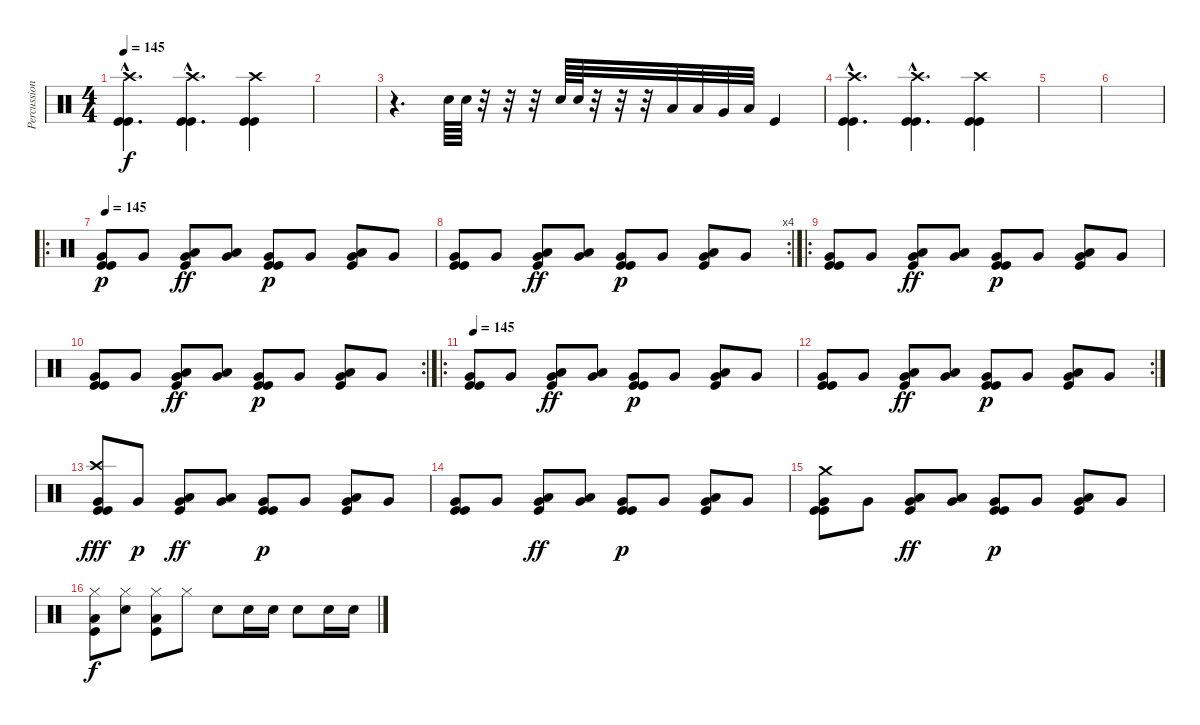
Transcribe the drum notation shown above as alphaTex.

\track ("Percussions" "Percussion") {instrument percussion}
\staff {score}
\articulation defaults
\ts (4 4)
\tempo 145
\tempo 125
\tempo 145
\clef neutral
\ks c
("Kick (hit)"{hac} "Kick (hit)"{hac} "Crash high (hit)"{hac}).4{d dy f} ("Kick (hit)"{hac} "Crash high (hit)"{hac} "Kick (hit)"{hac}).4{d} ("Kick (hit)" "Crash high (hit)" "Kick (hit)").4 |
|
r.4{d} "Snare (hit) 2".64 "Snare (hit) 2".64 r.32 r.32 r.32 "Snare (hit) 2".64 "Snare (hit) 2".64 r.32 r.32 r.32 "Low Tom (hit)".32 "Low Tom (hit)".32 "Very Low Tom (hit)".32 "Low Floor Tom (hit)".32 "Kick (hit)".4 |
("Kick (hit)"{hac} "Kick (hit)"{hac} "Crash high (hit)"{hac}).4{d} ("Kick (hit)"{hac} "Crash high (hit)"{hac} "Kick (hit)"{hac}).4{d} ("Kick (hit)" "Crash high (hit)" "Kick (hit)").4 |
|
|
\ro
\tempo 145
("Very Low Tom (hit)" "Kick (hit)" "Kick (hit)").8{dy p} "Very Low Tom (hit)".8 ("Very Low Tom (hit)" "Kick (hit)" "Low Tom (hit)").8{dy ff} ("Very Low Tom (hit)" "Low Tom (hit)").8 ("Very Low Tom (hit)" "Kick (hit)" "Kick (hit)").8{dy p} "Very Low Tom (hit)".8 ("Very Low Tom (hit)" "Kick (hit)" "Low Tom (hit)").8 "Very Low Tom (hit)".8 |
\rc 4
("Very Low Tom (hit)" "Kick (hit)" "Kick (hit)").8 "Very Low Tom (hit)".8 ("Very Low Tom (hit)" "Kick (hit)" "Low Tom (hit)").8{dy ff} ("Very Low Tom (hit)" "Low Tom (hit)").8 ("Very Low Tom (hit)" "Kick (hit)" "Kick (hit)").8{dy p} "Very Low Tom (hit)".8 ("Very Low Tom (hit)" "Kick (hit)" "Low Tom (hit)").8 "Very Low Tom (hit)".8 |
\ro
("Very Low Tom (hit)" "Kick (hit)" "Kick (hit)").8 "Very Low Tom (hit)".8 ("Very Low Tom (hit)" "Kick (hit)" "Low Tom (hit)").8{dy ff} ("Very Low Tom (hit)" "Low Tom (hit)").8 ("Very Low Tom (hit)" "Kick (hit)" "Kick (hit)").8{dy p} "Very Low Tom (hit)".8 ("Very Low Tom (hit)" "Kick (hit)" "Low Tom (hit)").8 "Very Low Tom (hit)".8 |
\rc 2
("Very Low Tom (hit)" "Kick (hit)" "Kick (hit)").8 "Very Low Tom (hit)".8 ("Very Low Tom (hit)" "Kick (hit)" "Low Tom (hit)").8{dy ff} ("Very Low Tom (hit)" "Low Tom (hit)").8 ("Very Low Tom (hit)" "Kick (hit)" "Kick (hit)").8{dy p} "Very Low Tom (hit)".8 ("Very Low Tom (hit)" "Kick (hit)" "Low Tom (hit)").8 "Very Low Tom (hit)".8 |
\ro
\tempo 145
("Very Low Tom (hit)" "Kick (hit)" "Kick (hit)").8 "Very Low Tom (hit)".8 ("Very Low Tom (hit)" "Kick (hit)" "Low Tom (hit)").8{dy ff} ("Very Low Tom (hit)" "Low Tom (hit)").8 ("Very Low Tom (hit)" "Kick (hit)" "Kick (hit)").8{dy p} "Very Low Tom (hit)".8 ("Very Low Tom (hit)" "Kick (hit)" "Low Tom (hit)").8 "Very Low Tom (hit)".8 |
\rc 2
("Very Low Tom (hit)" "Kick (hit)" "Kick (hit)").8 "Very Low Tom (hit)".8 ("Very Low Tom (hit)" "Kick (hit)" "Low Tom (hit)").8{dy ff} ("Very Low Tom (hit)" "Low Tom (hit)").8 ("Very Low Tom (hit)" "Kick (hit)" "Kick (hit)").8{dy p} "Very Low Tom (hit)".8 ("Very Low Tom (hit)" "Kick (hit)" "Low Tom (hit)").8 "Very Low Tom (hit)".8 |
("Very Low Tom (hit)" "Kick (hit)" "Kick (hit)" "Crash high (hit)").8{dy fff} "Very Low Tom (hit)".8{dy p} ("Very Low Tom (hit)" "Kick (hit)" "Low Tom (hit)").8{dy ff} ("Very Low Tom (hit)" "Low Tom (hit)").8 ("Very Low Tom (hit)" "Kick (hit)" "Kick (hit)").8{dy p} "Very Low Tom (hit)".8 ("Very Low Tom (hit)" "Kick (hit)" "Low Tom (hit)").8 "Very Low Tom (hit)".8 |
("Very Low Tom (hit)" "Kick (hit)" "Kick (hit)").8 "Very Low Tom (hit)".8 ("Very Low Tom (hit)" "Kick (hit)" "Low Tom (hit)").8{dy ff} ("Very Low Tom (hit)" "Low Tom (hit)").8 ("Very Low Tom (hit)" "Kick (hit)" "Kick (hit)").8{dy p} "Very Low Tom (hit)".8 ("Very Low Tom (hit)" "Kick (hit)" "Low Tom (hit)").8 "Very Low Tom (hit)".8 |
("Very Low Tom (hit)" "Kick (hit)" "Kick (hit)" "Crash medium (hit)").8 "Very Low Tom (hit)".8 ("Very Low Tom (hit)" "Kick (hit)" "Low Tom (hit)").8{dy ff} ("Very Low Tom (hit)" "Low Tom (hit)").8 ("Very Low Tom (hit)" "Kick (hit)" "Kick (hit)").8{dy p} "Very Low Tom (hit)".8 ("Very Low Tom (hit)" "Kick (hit)" "Low Tom (hit)").8 "Very Low Tom (hit)".8 |
("Kick (hit)" "Low Floor Tom (hit)" "Hi-Hat (closed)").8{dy f} ("Snare (hit) 2" "Hi-Hat (closed)").8 ("Kick (hit)" "Low Floor Tom (hit)" "Hi-Hat (closed)").8 "Hi-Hat (closed)".8 "Snare (hit) 2".8 "Snare (hit) 2".16 "Snare (hit) 2".16 "Snare (hit) 2".8 "Snare (hit) 2".16 "Snare (hit) 2".16
